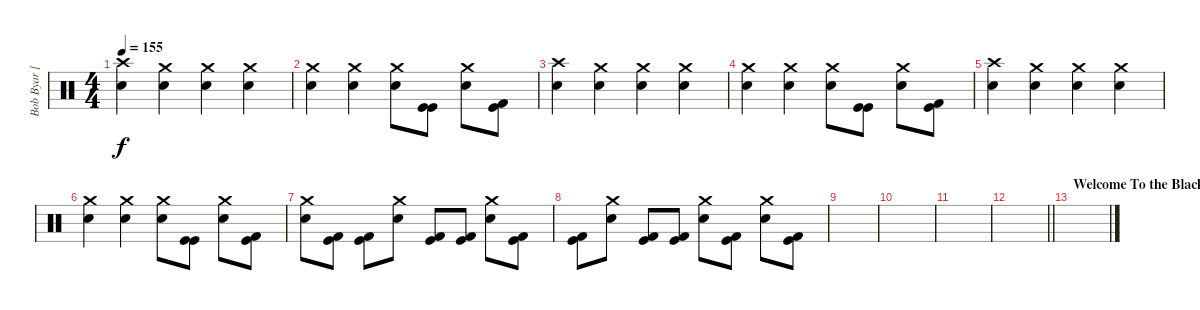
\track ("Bob Byar [Drums]" "Bob Byar [") {instrument percussion}
\staff {score}
\articulation defaults
\ts (4 4)
\tempo 155
\clef neutral
\ks c
("Crash high (hit)" "Electric Snare (hit)").4{dy f} ("Crash medium (hit)" "Electric Snare (hit)").4 ("Crash medium (hit)" "Electric Snare (hit)").4 ("Crash medium (hit)" "Electric Snare (hit)").4 |
("Crash medium (hit)" "Electric Snare (hit)").4 ("Crash medium (hit)" "Electric Snare (hit)").4 ("Crash medium (hit)" "Electric Snare (hit)").8 ("Kick (hit)" "Kick (hit)").8 ("Crash medium (hit)" "Electric Snare (hit)").8 ("Kick (hit)" "Kick (hit) 2").8 |
("Crash high (hit)" "Electric Snare (hit)").4 ("Crash medium (hit)" "Electric Snare (hit)").4 ("Crash medium (hit)" "Electric Snare (hit)").4 ("Crash medium (hit)" "Electric Snare (hit)").4 |
("Crash medium (hit)" "Electric Snare (hit)").4 ("Crash medium (hit)" "Electric Snare (hit)").4 ("Crash medium (hit)" "Electric Snare (hit)").8 ("Kick (hit)" "Kick (hit)").8 ("Crash medium (hit)" "Electric Snare (hit)").8 ("Kick (hit)" "Kick (hit) 2").8 |
("Crash high (hit)" "Electric Snare (hit)").4 ("Crash medium (hit)" "Electric Snare (hit)").4 ("Crash medium (hit)" "Electric Snare (hit)").4 ("Crash medium (hit)" "Electric Snare (hit)").4 |
("Crash medium (hit)" "Electric Snare (hit)").4 ("Crash medium (hit)" "Electric Snare (hit)").4 ("Crash medium (hit)" "Electric Snare (hit)").8 ("Kick (hit)" "Kick (hit)").8 ("Crash medium (hit)" "Electric Snare (hit)").8 ("Kick (hit)" "Kick (hit) 2").8 |
("Crash medium (hit)" "Electric Snare (hit)").8 ("Kick (hit)" "Kick (hit) 2").8 ("Kick (hit)" "Kick (hit) 2").8 ("Crash medium (hit)" "Electric Snare (hit)").8 ("Kick (hit)" "Kick (hit) 2").8 ("Kick (hit)" "Kick (hit) 2").8 ("Crash medium (hit)" "Electric Snare (hit)").8 ("Kick (hit)" "Kick (hit) 2").8 |
("Kick (hit)" "Kick (hit) 2").8 ("Crash medium (hit)" "Electric Snare (hit)").8 ("Kick (hit)" "Kick (hit) 2").8 ("Kick (hit)" "Kick (hit) 2").8 ("Crash medium (hit)" "Electric Snare (hit)").8 ("Kick (hit)" "Kick (hit) 2").8 ("Crash medium (hit)" "Electric Snare (hit)").8 ("Kick (hit)" "Kick (hit) 2").8 |
|
|
|
\barLineRight lightlight
|
\section ("" "Welcome To the Black Parade")
